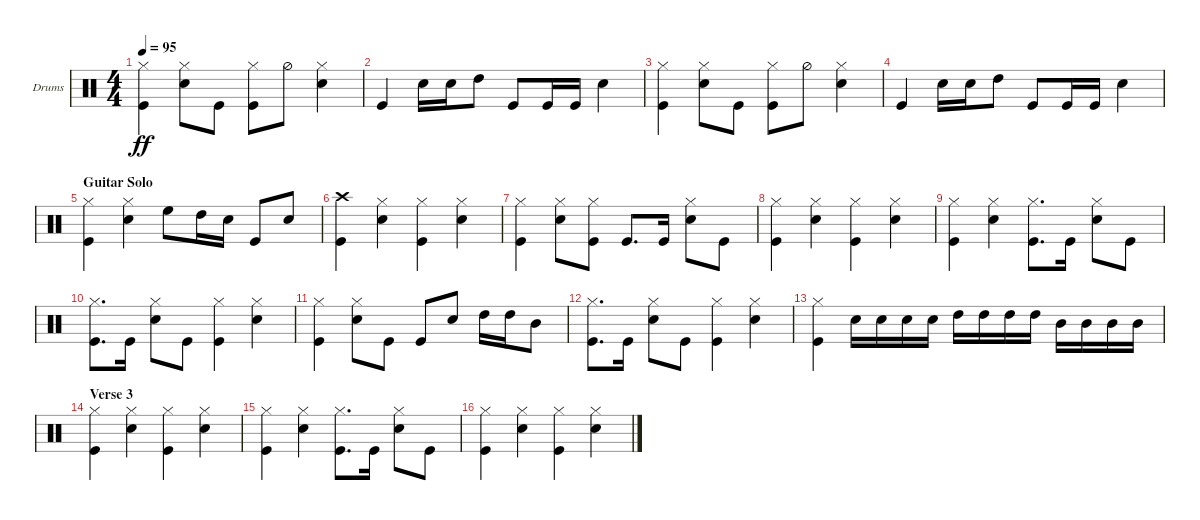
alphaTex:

\defaultSystemsLayout 4
\bracketExtendMode groupsimilarinstruments
\firstSystemTrackNameOrientation horizontal
\otherSystemsTrackNameOrientation horizontal
\track ("Drums" "Drums") {instrument percussion}
\staff {score}
\articulation defaults
\ts (4 4)
\tempo 95
\clef neutral
\ks c
("Hi-Hat (closed)" "Kick (hit)").4{dy ff} ("Hi-Hat (closed)" "Snare (hit) 2").8 "Kick (hit)".8 ("Kick (hit)" "Hi-Hat (closed)").8 "Hi-Hat (half)".8 ("Hi-Hat (closed)" "Snare (hit) 2").4 |
"Kick (hit)".4 "Snare (hit) 2".16 "Snare (hit) 2".16 "High Tom (hit)".8 "Kick (hit)".8 "Kick (hit)".16 "Kick (hit)".16 "Snare (hit) 2".4 |
("Hi-Hat (closed)" "Kick (hit)").4 ("Hi-Hat (closed)" "Snare (hit) 2").8 "Kick (hit)".8 ("Kick (hit)" "Hi-Hat (closed)").8 "Hi-Hat (half)".8 ("Hi-Hat (closed)" "Snare (hit) 2").4 |
"Kick (hit)".4 "Snare (hit) 2".16 "Snare (hit) 2".16 "High Tom (hit)".8 "Kick (hit)".8 "Kick (hit)".16 "Kick (hit)".16 "Snare (hit) 2".4 |
\section ("" "Guitar Solo")
("Hi-Hat (closed)" "Kick (hit)").4 ("Hi-Hat (closed)" "Snare (hit) 2").4 "High Floor Tom (hit)".8 "High Tom (hit)".16 "Snare (hit) 2".16 "Kick (hit)".8 "Snare (hit) 2".8 |
("Kick (hit)" "Crash high (hit)").4 ("Hi-Hat (closed)" "Snare (hit) 2").4 ("Kick (hit)" "Hi-Hat (closed)").4 ("Hi-Hat (closed)" "Snare (hit) 2").4 |
("Hi-Hat (closed)" "Kick (hit)").4 ("Hi-Hat (closed)" "Snare (hit) 2").8 ("Kick (hit)" "Hi-Hat (closed)").8 "Kick (hit)".8{d} "Kick (hit)".16 ("Hi-Hat (closed)" "Snare (hit) 2").8 "Kick (hit)".8 |
("Hi-Hat (closed)" "Kick (hit)").4 ("Hi-Hat (closed)" "Snare (hit) 2").4 ("Kick (hit)" "Hi-Hat (closed)").4 ("Hi-Hat (closed)" "Snare (hit) 2").4 |
("Hi-Hat (closed)" "Kick (hit)").4 ("Hi-Hat (closed)" "Snare (hit) 2").4 ("Kick (hit)" "Hi-Hat (closed)").8{d} "Kick (hit)".16 ("Hi-Hat (closed)" "Snare (hit) 2").8 "Kick (hit)".8 |
("Hi-Hat (closed)" "Kick (hit)").8{d} "Kick (hit)".16 ("Hi-Hat (closed)" "Snare (hit) 2").8 "Kick (hit)".8 ("Kick (hit)" "Hi-Hat (closed)").4 ("Hi-Hat (closed)" "Snare (hit) 2").4 |
("Hi-Hat (closed)" "Kick (hit)").4 ("Hi-Hat (closed)" "Snare (hit) 2").8 "Kick (hit)".8 "Kick (hit)".8 "Snare (hit) 2".8 "High Tom (hit)".16 "High Tom (hit)".16 "Mid Tom (hit)".8 |
("Hi-Hat (closed)" "Kick (hit)").8{d} "Kick (hit)".16 ("Hi-Hat (closed)" "Snare (hit) 2").8 "Kick (hit)".8 ("Kick (hit)" "Hi-Hat (closed)").4 ("Hi-Hat (closed)" "Snare (hit) 2").4 |
("Hi-Hat (closed)" "Kick (hit)").4 "Snare (hit) 2".16 "Snare (hit) 2".16 "Snare (hit) 2".16 "Snare (hit) 2".16 "High Tom (hit)".16 "High Tom (hit)".16 "High Tom (hit)".16 "High Tom (hit)".16 "Mid Tom (hit)".16 "Mid Tom (hit)".16 "Mid Tom (hit)".16 "Mid Tom (hit)".16 |
\section ("" "Verse 3")
("Hi-Hat (closed)" "Kick (hit)").4 ("Hi-Hat (closed)" "Snare (hit) 2").4 ("Kick (hit)" "Hi-Hat (closed)").4 ("Hi-Hat (closed)" "Snare (hit) 2").4 |
("Hi-Hat (closed)" "Kick (hit)").4 ("Hi-Hat (closed)" "Snare (hit) 2").4 ("Kick (hit)" "Hi-Hat (closed)").8{d} "Kick (hit)".16 ("Hi-Hat (closed)" "Snare (hit) 2").8 "Kick (hit)".8 |
("Hi-Hat (closed)" "Kick (hit)").4 ("Hi-Hat (closed)" "Snare (hit) 2").4 ("Kick (hit)" "Hi-Hat (closed)").4 ("Hi-Hat (closed)" "Snare (hit) 2").4
